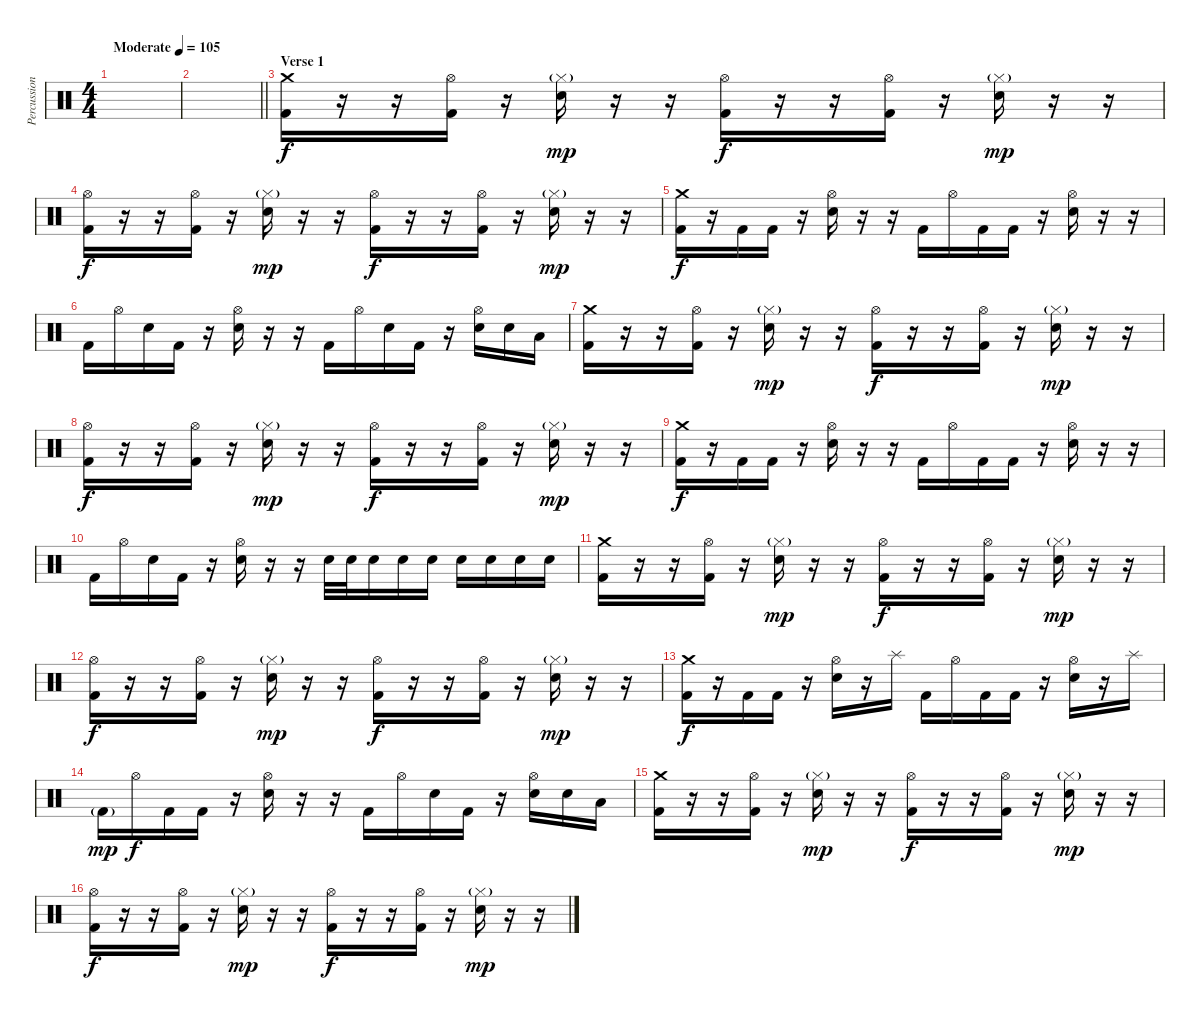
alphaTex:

\track ("Percussion" "Percussion") {instrument percussion}
\staff {score}
\articulation defaults
\ts (4 4)
\tempo (105 "Moderate")
\clef neutral
\ks c
|
\barLineRight lightlight
|
\section ("" "Verse 1")
("Crash medium (hit)" "Kick (hit) 2").16 r.16 r.16 ("Hi-Hat (open)" "Kick (hit) 2").16 r.16 ("Hi-Hat (closed)"{g} "Electric Snare (hit)").16{dy mp} r.16 r.16 ("Hi-Hat (open)" "Kick (hit) 2").16{dy f} r.16 r.16 ("Hi-Hat (open)" "Kick (hit) 2").16 r.16 ("Hi-Hat (closed)"{g} "Electric Snare (hit)").16{dy mp} r.16 r.16 |
("Hi-Hat (open)" "Kick (hit) 2").16{dy f} r.16 r.16 ("Hi-Hat (open)" "Kick (hit) 2").16 r.16 ("Hi-Hat (closed)"{g} "Electric Snare (hit)").16{dy mp} r.16 r.16 ("Hi-Hat (open)" "Kick (hit) 2").16{dy f} r.16 r.16 ("Hi-Hat (open)" "Kick (hit) 2").16 r.16 ("Hi-Hat (closed)"{g} "Electric Snare (hit)").16{dy mp} r.16 r.16 |
("Crash medium (hit)" "Kick (hit) 2").16{dy f} r.16 "Kick (hit) 2".16 "Kick (hit) 2".16 r.16 ("Hi-Hat (open)" "Electric Snare (hit)").16 r.16 r.16 "Kick (hit) 2".16 "Hi-Hat (open)".16 "Kick (hit) 2".16 "Kick (hit) 2".16 r.16 ("Hi-Hat (open)" "Electric Snare (hit)").16 r.16 r.16 |
"Kick (hit) 2".16 "Hi-Hat (open)".16 "Electric Snare (hit)".16 "Kick (hit) 2".16 r.16 ("Hi-Hat (open)" "Electric Snare (hit)").16 r.16 r.16 "Kick (hit) 2".16 "Hi-Hat (open)".16 "Electric Snare (hit)".16 "Kick (hit) 2".16 r.16 ("Hi-Hat (open)" "Electric Snare (hit)").16 "Electric Snare (hit)".16 "Low Tom (hit)".16 |
("Crash medium (hit)" "Kick (hit) 2").16 r.16 r.16 ("Hi-Hat (open)" "Kick (hit) 2").16 r.16 ("Hi-Hat (closed)"{g} "Electric Snare (hit)").16{dy mp} r.16 r.16 ("Hi-Hat (open)" "Kick (hit) 2").16{dy f} r.16 r.16 ("Hi-Hat (open)" "Kick (hit) 2").16 r.16 ("Hi-Hat (closed)"{g} "Electric Snare (hit)").16{dy mp} r.16 r.16 |
("Hi-Hat (open)" "Kick (hit) 2").16{dy f} r.16 r.16 ("Hi-Hat (open)" "Kick (hit) 2").16 r.16 ("Hi-Hat (closed)"{g} "Electric Snare (hit)").16{dy mp} r.16 r.16 ("Hi-Hat (open)" "Kick (hit) 2").16{dy f} r.16 r.16 ("Hi-Hat (open)" "Kick (hit) 2").16 r.16 ("Hi-Hat (closed)"{g} "Electric Snare (hit)").16{dy mp} r.16 r.16 |
("Crash medium (hit)" "Kick (hit) 2").16{dy f} r.16 "Kick (hit) 2".16 "Kick (hit) 2".16 r.16 ("Hi-Hat (open)" "Electric Snare (hit)").16 r.16 r.16 "Kick (hit) 2".16 "Hi-Hat (open)".16 "Kick (hit) 2".16 "Kick (hit) 2".16 r.16 ("Hi-Hat (open)" "Electric Snare (hit)").16 r.16 r.16 |
"Kick (hit) 2".16 "Hi-Hat (open)".16 "Electric Snare (hit)".16 "Kick (hit) 2".16 r.16 ("Hi-Hat (open)" "Electric Snare (hit)").16 r.16 r.16 "Electric Snare (hit)".32 "Electric Snare (hit)".32 "Electric Snare (hit)".16 "Electric Snare (hit)".16 "Electric Snare (hit)".16 "Electric Snare (hit)".16 "Electric Snare (hit)".16 "Electric Snare (hit)".16 "Electric Snare (hit)".16 |
("Crash medium (hit)" "Kick (hit) 2").16 r.16 r.16 ("Hi-Hat (open)" "Kick (hit) 2").16 r.16 ("Hi-Hat (closed)"{g} "Electric Snare (hit)").16{dy mp} r.16 r.16 ("Hi-Hat (open)" "Kick (hit) 2").16{dy f} r.16 r.16 ("Hi-Hat (open)" "Kick (hit) 2").16 r.16 ("Hi-Hat (closed)"{g} "Electric Snare (hit)").16{dy mp} r.16 r.16 |
("Hi-Hat (open)" "Kick (hit) 2").16{dy f} r.16 r.16 ("Hi-Hat (open)" "Kick (hit) 2").16 r.16 ("Hi-Hat (closed)"{g} "Electric Snare (hit)").16{dy mp} r.16 r.16 ("Hi-Hat (open)" "Kick (hit) 2").16{dy f} r.16 r.16 ("Hi-Hat (open)" "Kick (hit) 2").16 r.16 ("Hi-Hat (closed)"{g} "Electric Snare (hit)").16{dy mp} r.16 r.16 |
("Crash medium (hit)" "Kick (hit) 2").16{dy f} r.16 "Kick (hit) 2".16 "Kick (hit) 2".16 r.16 ("Hi-Hat (open)" "Electric Snare (hit)").16 r.16 "Splash (hit)".16 "Kick (hit) 2".16 "Hi-Hat (open)".16 "Kick (hit) 2".16 "Kick (hit) 2".16 r.16 ("Hi-Hat (open)" "Electric Snare (hit)").16 r.16 "Splash (hit)".16 |
"Kick (hit) 2"{g}.16{dy mp} "Hi-Hat (open)".16{dy f} "Kick (hit) 2".16 "Kick (hit) 2".16 r.16 ("Hi-Hat (open)" "Electric Snare (hit)").16 r.16 r.16 "Kick (hit) 2".16 "Hi-Hat (open)".16 "Electric Snare (hit)".16 "Kick (hit) 2".16 r.16 ("Hi-Hat (open)" "Electric Snare (hit)").16 "Electric Snare (hit)".16 "Low Tom (hit)".16 |
("Crash medium (hit)" "Kick (hit) 2").16 r.16 r.16 ("Hi-Hat (open)" "Kick (hit) 2").16 r.16 ("Hi-Hat (closed)"{g} "Electric Snare (hit)").16{dy mp} r.16 r.16 ("Hi-Hat (open)" "Kick (hit) 2").16{dy f} r.16 r.16 ("Hi-Hat (open)" "Kick (hit) 2").16 r.16 ("Hi-Hat (closed)"{g} "Electric Snare (hit)").16{dy mp} r.16 r.16 |
("Hi-Hat (open)" "Kick (hit) 2").16{dy f} r.16 r.16 ("Hi-Hat (open)" "Kick (hit) 2").16 r.16 ("Hi-Hat (closed)"{g} "Electric Snare (hit)").16{dy mp} r.16 r.16 ("Hi-Hat (open)" "Kick (hit) 2").16{dy f} r.16 r.16 ("Hi-Hat (open)" "Kick (hit) 2").16 r.16 ("Hi-Hat (closed)"{g} "Electric Snare (hit)").16{dy mp} r.16 r.16
